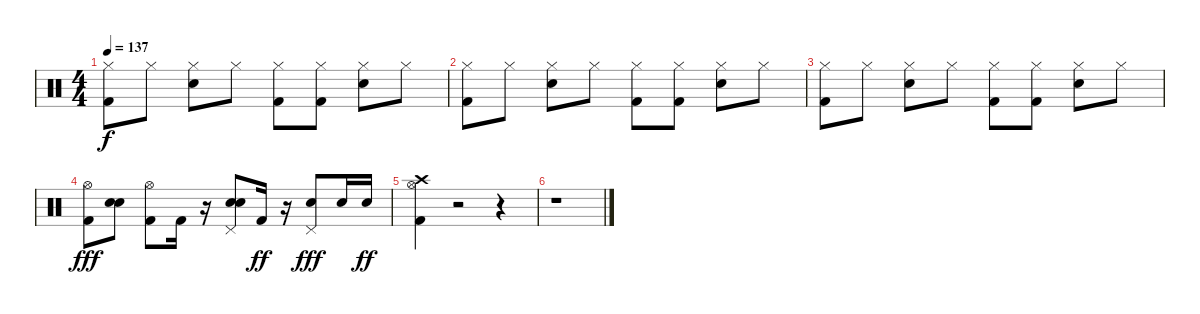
\track "" {instrument percussion}
\staff {score}
\articulation defaults
\ts (4 4)
\tempo 137
\clef neutral
\ks c
("Kick (hit) 2" "Hi-Hat (closed)").8{dy f} "Hi-Hat (closed)".8 ("Hi-Hat (closed)" "Electric Snare (hit)").8 "Hi-Hat (closed)".8 ("Kick (hit) 2" "Hi-Hat (closed)").8 ("Kick (hit) 2" "Hi-Hat (closed)").8 ("Electric Snare (hit)" "Hi-Hat (closed)").8 "Hi-Hat (closed)".8 |
("Kick (hit) 2" "Hi-Hat (closed)").8 "Hi-Hat (closed)".8 ("Hi-Hat (closed)" "Electric Snare (hit)").8 "Hi-Hat (closed)".8 ("Kick (hit) 2" "Hi-Hat (closed)").8 ("Kick (hit) 2" "Hi-Hat (closed)").8 ("Electric Snare (hit)" "Hi-Hat (closed)").8 "Hi-Hat (closed)".8 |
("Kick (hit) 2" "Hi-Hat (closed)").8 "Hi-Hat (closed)".8 ("Hi-Hat (closed)" "Electric Snare (hit)").8 "Hi-Hat (closed)".8 ("Kick (hit) 2" "Hi-Hat (closed)").8 ("Kick (hit) 2" "Hi-Hat (closed)").8 ("Electric Snare (hit)" "Hi-Hat (closed)").8 "Hi-Hat (closed)".8 |
("Hi-Hat (open)" "Kick (hit) 2").8{dy fff} ("Electric Snare (hit)" "Electric Snare (hit)").8 ("Hi-Hat (open)" "Kick (hit) 2").8 "Kick (hit) 2".16 r.16 ("Electric Snare (hit)" "Pedal Hi-Hat (hit)" "Electric Snare (hit)").8 "Kick (hit) 2".16{dy ff} r.16 ("Pedal Hi-Hat (hit)" "Electric Snare (hit)").8{dy fff} "Electric Snare (hit)".16 "Electric Snare (hit)".16{dy ff} |
("Crash high (hit)" "Kick (hit) 2" "Hi-Hat (open)").4 r.2 r.4 |
r.1
